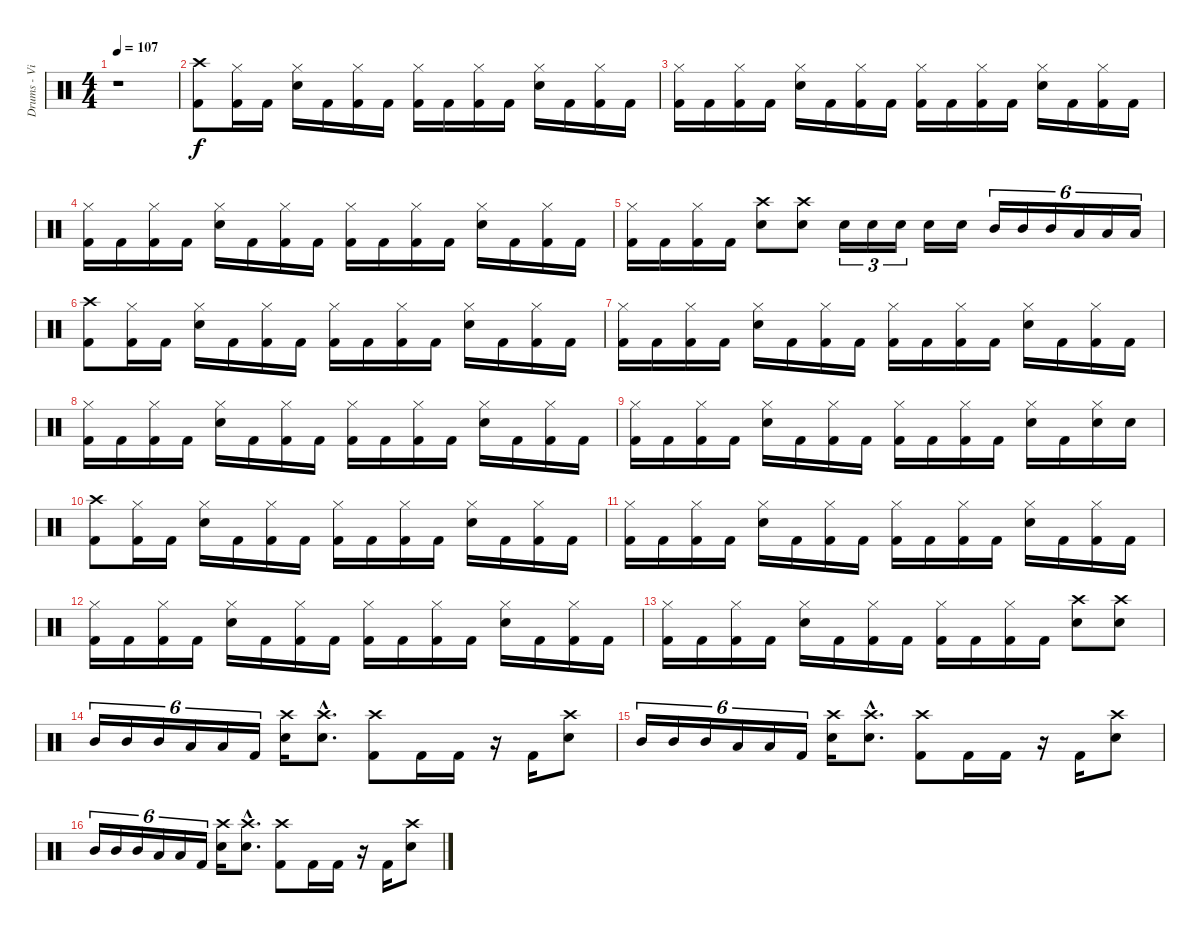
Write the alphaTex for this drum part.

\track ("Drums - Vinnie Paul" "Drums - Vi") {instrument percussion}
\staff {score}
\articulation defaults
\ts (4 4)
\tempo 107
\clef neutral
\ks c
r.1{dy f} |
("Crash high (hit)" "Kick (hit) 2").8 ("Hi-Hat (closed)" "Kick (hit) 2").16 "Kick (hit) 2".16 ("Hi-Hat (closed)" "Electric Snare (hit)").16 "Kick (hit) 2".16 ("Hi-Hat (closed)" "Kick (hit) 2").16 "Kick (hit) 2".16 ("Hi-Hat (closed)" "Kick (hit) 2").16 "Kick (hit) 2".16 ("Hi-Hat (closed)" "Kick (hit) 2").16 "Kick (hit) 2".16 ("Hi-Hat (closed)" "Electric Snare (hit)").16 "Kick (hit) 2".16 ("Hi-Hat (closed)" "Kick (hit) 2").16 "Kick (hit) 2".16 |
("Hi-Hat (closed)" "Kick (hit) 2").16 "Kick (hit) 2".16 ("Hi-Hat (closed)" "Kick (hit) 2").16 "Kick (hit) 2".16 ("Hi-Hat (closed)" "Electric Snare (hit)").16 "Kick (hit) 2".16 ("Hi-Hat (closed)" "Kick (hit) 2").16 "Kick (hit) 2".16 ("Hi-Hat (closed)" "Kick (hit) 2").16 "Kick (hit) 2".16 ("Hi-Hat (closed)" "Kick (hit) 2").16 "Kick (hit) 2".16 ("Hi-Hat (closed)" "Electric Snare (hit)").16 "Kick (hit) 2".16 ("Hi-Hat (closed)" "Kick (hit) 2").16 "Kick (hit) 2".16 |
("Hi-Hat (closed)" "Kick (hit) 2").16 "Kick (hit) 2".16 ("Hi-Hat (closed)" "Kick (hit) 2").16 "Kick (hit) 2".16 ("Hi-Hat (closed)" "Electric Snare (hit)").16 "Kick (hit) 2".16 ("Hi-Hat (closed)" "Kick (hit) 2").16 "Kick (hit) 2".16 ("Hi-Hat (closed)" "Kick (hit) 2").16 "Kick (hit) 2".16 ("Hi-Hat (closed)" "Kick (hit) 2").16 "Kick (hit) 2".16 ("Hi-Hat (closed)" "Electric Snare (hit)").16 "Kick (hit) 2".16 ("Hi-Hat (closed)" "Kick (hit) 2").16 "Kick (hit) 2".16 |
("Hi-Hat (closed)" "Kick (hit) 2").16 "Kick (hit) 2".16 ("Hi-Hat (closed)" "Kick (hit) 2").16 "Kick (hit) 2".16 ("Crash high (hit)" "Electric Snare (hit)").8 ("Crash high (hit)" "Electric Snare (hit)").8 "Electric Snare (hit)".16{tu (3 2)} "Electric Snare (hit)".16{tu (3 2)} "Electric Snare (hit)".16{tu (3 2)} "Electric Snare (hit)".16 "Electric Snare (hit)".16 "Mid Tom (hit)".16{tu (6 4)} "Mid Tom (hit)".16{tu (6 4)} "Mid Tom (hit)".16{tu (6 4)} "Low Tom (hit)".16{tu (6 4)} "Low Tom (hit)".16{tu (6 4)} "Low Tom (hit)".16{tu (6 4)} |
("Crash high (hit)" "Kick (hit) 2").8 ("Hi-Hat (closed)" "Kick (hit) 2").16 "Kick (hit) 2".16 ("Hi-Hat (closed)" "Electric Snare (hit)").16 "Kick (hit) 2".16 ("Hi-Hat (closed)" "Kick (hit) 2").16 "Kick (hit) 2".16 ("Hi-Hat (closed)" "Kick (hit) 2").16 "Kick (hit) 2".16 ("Hi-Hat (closed)" "Kick (hit) 2").16 "Kick (hit) 2".16 ("Hi-Hat (closed)" "Electric Snare (hit)").16 "Kick (hit) 2".16 ("Hi-Hat (closed)" "Kick (hit) 2").16 "Kick (hit) 2".16 |
("Hi-Hat (closed)" "Kick (hit) 2").16 "Kick (hit) 2".16 ("Hi-Hat (closed)" "Kick (hit) 2").16 "Kick (hit) 2".16 ("Hi-Hat (closed)" "Electric Snare (hit)").16 "Kick (hit) 2".16 ("Hi-Hat (closed)" "Kick (hit) 2").16 "Kick (hit) 2".16 ("Hi-Hat (closed)" "Kick (hit) 2").16 "Kick (hit) 2".16 ("Hi-Hat (closed)" "Kick (hit) 2").16 "Kick (hit) 2".16 ("Hi-Hat (closed)" "Electric Snare (hit)").16 "Kick (hit) 2".16 ("Hi-Hat (closed)" "Kick (hit) 2").16 "Kick (hit) 2".16 |
("Hi-Hat (closed)" "Kick (hit) 2").16 "Kick (hit) 2".16 ("Hi-Hat (closed)" "Kick (hit) 2").16 "Kick (hit) 2".16 ("Hi-Hat (closed)" "Electric Snare (hit)").16 "Kick (hit) 2".16 ("Hi-Hat (closed)" "Kick (hit) 2").16 "Kick (hit) 2".16 ("Hi-Hat (closed)" "Kick (hit) 2").16 "Kick (hit) 2".16 ("Hi-Hat (closed)" "Kick (hit) 2").16 "Kick (hit) 2".16 ("Hi-Hat (closed)" "Electric Snare (hit)").16 "Kick (hit) 2".16 ("Hi-Hat (closed)" "Kick (hit) 2").16 "Kick (hit) 2".16 |
("Hi-Hat (closed)" "Kick (hit) 2").16 "Kick (hit) 2".16 ("Hi-Hat (closed)" "Kick (hit) 2").16 "Kick (hit) 2".16 ("Hi-Hat (closed)" "Electric Snare (hit)").16 "Kick (hit) 2".16 ("Hi-Hat (closed)" "Kick (hit) 2").16 "Kick (hit) 2".16 ("Hi-Hat (closed)" "Kick (hit) 2").16 "Kick (hit) 2".16 ("Hi-Hat (closed)" "Kick (hit) 2").16 "Kick (hit) 2".16 ("Hi-Hat (closed)" "Electric Snare (hit)").16 "Kick (hit) 2".16 ("Hi-Hat (closed)" "Electric Snare (hit)").16 "Electric Snare (hit)".16 |
("Crash high (hit)" "Kick (hit) 2").8 ("Hi-Hat (closed)" "Kick (hit) 2").16 "Kick (hit) 2".16 ("Hi-Hat (closed)" "Electric Snare (hit)").16 "Kick (hit) 2".16 ("Hi-Hat (closed)" "Kick (hit) 2").16 "Kick (hit) 2".16 ("Hi-Hat (closed)" "Kick (hit) 2").16 "Kick (hit) 2".16 ("Hi-Hat (closed)" "Kick (hit) 2").16 "Kick (hit) 2".16 ("Hi-Hat (closed)" "Electric Snare (hit)").16 "Kick (hit) 2".16 ("Hi-Hat (closed)" "Kick (hit) 2").16 "Kick (hit) 2".16 |
("Hi-Hat (closed)" "Kick (hit) 2").16 "Kick (hit) 2".16 ("Hi-Hat (closed)" "Kick (hit) 2").16 "Kick (hit) 2".16 ("Hi-Hat (closed)" "Electric Snare (hit)").16 "Kick (hit) 2".16 ("Hi-Hat (closed)" "Kick (hit) 2").16 "Kick (hit) 2".16 ("Hi-Hat (closed)" "Kick (hit) 2").16 "Kick (hit) 2".16 ("Hi-Hat (closed)" "Kick (hit) 2").16 "Kick (hit) 2".16 ("Hi-Hat (closed)" "Electric Snare (hit)").16 "Kick (hit) 2".16 ("Hi-Hat (closed)" "Kick (hit) 2").16 "Kick (hit) 2".16 |
("Hi-Hat (closed)" "Kick (hit) 2").16 "Kick (hit) 2".16 ("Hi-Hat (closed)" "Kick (hit) 2").16 "Kick (hit) 2".16 ("Hi-Hat (closed)" "Electric Snare (hit)").16 "Kick (hit) 2".16 ("Hi-Hat (closed)" "Kick (hit) 2").16 "Kick (hit) 2".16 ("Hi-Hat (closed)" "Kick (hit) 2").16 "Kick (hit) 2".16 ("Hi-Hat (closed)" "Kick (hit) 2").16 "Kick (hit) 2".16 ("Hi-Hat (closed)" "Electric Snare (hit)").16 "Kick (hit) 2".16 ("Hi-Hat (closed)" "Kick (hit) 2").16 "Kick (hit) 2".16 |
("Hi-Hat (closed)" "Kick (hit) 2").16 "Kick (hit) 2".16 ("Hi-Hat (closed)" "Kick (hit) 2").16 "Kick (hit) 2".16 ("Hi-Hat (closed)" "Electric Snare (hit)").16 "Kick (hit) 2".16 ("Hi-Hat (closed)" "Kick (hit) 2").16 "Kick (hit) 2".16 ("Hi-Hat (closed)" "Kick (hit) 2").16 "Kick (hit) 2".16 ("Hi-Hat (closed)" "Kick (hit) 2").16 "Kick (hit) 2".16 ("Crash high (hit)" "Electric Snare (hit)").8 ("Crash high (hit)" "Electric Snare (hit)").8 |
"Mid Tom (hit)".16{tu (6 4)} "Mid Tom (hit)".16{tu (6 4)} "Mid Tom (hit)".16{tu (6 4)} "Low Tom (hit)".16{tu (6 4)} "Low Tom (hit)".16{tu (6 4)} "Kick (hit) 2".16{tu (6 4)} ("Crash high (hit)" "Electric Snare (hit)").16 ("Crash high (hit)"{hac} "Electric Snare (hit)"{hac}).8{d} ("Crash high (hit)" "Kick (hit) 2").8 "Kick (hit) 2".16 "Kick (hit) 2".16 r.16 "Kick (hit) 2".16 ("Crash high (hit)" "Electric Snare (hit)").8 |
"Mid Tom (hit)".16{tu (6 4)} "Mid Tom (hit)".16{tu (6 4)} "Mid Tom (hit)".16{tu (6 4)} "Low Tom (hit)".16{tu (6 4)} "Low Tom (hit)".16{tu (6 4)} "Kick (hit) 2".16{tu (6 4)} ("Crash high (hit)" "Electric Snare (hit)").16 ("Crash high (hit)"{hac} "Electric Snare (hit)"{hac}).8{d} ("Crash high (hit)" "Kick (hit) 2").8 "Kick (hit) 2".16 "Kick (hit) 2".16 r.16 "Kick (hit) 2".16 ("Crash high (hit)" "Electric Snare (hit)").8 |
"Mid Tom (hit)".16{tu (6 4)} "Mid Tom (hit)".16{tu (6 4)} "Mid Tom (hit)".16{tu (6 4)} "Low Tom (hit)".16{tu (6 4)} "Low Tom (hit)".16{tu (6 4)} "Kick (hit) 2".16{tu (6 4)} ("Crash high (hit)" "Electric Snare (hit)").16 ("Crash high (hit)"{hac} "Electric Snare (hit)"{hac}).8{d} ("Crash high (hit)" "Kick (hit) 2").8 "Kick (hit) 2".16 "Kick (hit) 2".16 r.16 "Kick (hit) 2".16 ("Crash high (hit)" "Electric Snare (hit)").8
